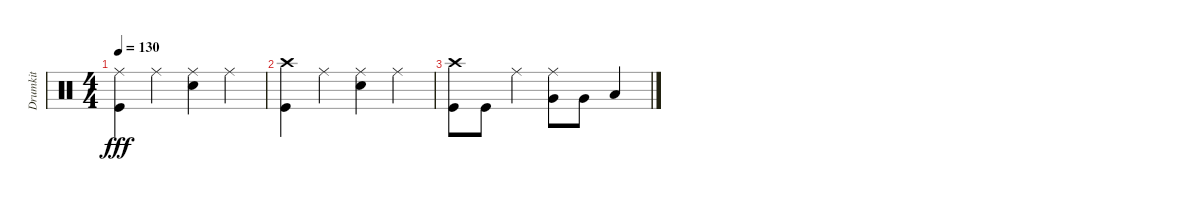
\track ("Drumkit" "Drumkit") {instrument percussion}
\staff {score}
\articulation defaults
\ts (4 4)
\tempo 130
\clef neutral
\ks c
("Ride (middle)" "Kick (hit)").4{dy fff} "Ride (middle)".4 ("Ride (middle)" "Snare (hit) 2").4 "Ride (middle)".4 |
("Kick (hit)" "Crash high (hit)").4 "Ride (middle)".4 ("Ride (middle)" "Snare (hit) 2").4 "Ride (middle)".4 |
("Kick (hit)" "Crash high (hit)").8 "Kick (hit)".8 "Ride (middle)".4 ("Ride (middle)" "Very Low Tom (hit)").8 "Very Low Tom (hit)".8 "Low Tom (hit)".4
